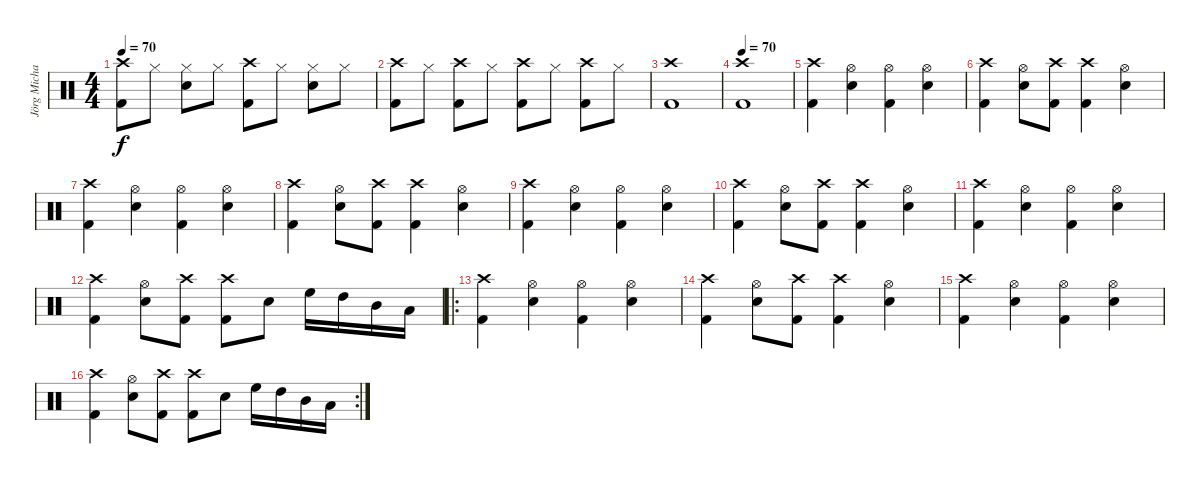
\track ("Jörg Michael (Drums)" "Jörg Micha") {instrument percussion}
\staff {score}
\articulation defaults
\ts (4 4)
\tempo 70
\clef neutral
\ks c
("Crash high (hit)" "Kick (hit) 2").8{dy f} "Hi-Hat (closed)".8 ("Hi-Hat (closed)" "Snare (hit) 2").8 "Hi-Hat (closed)".8 ("Crash high (hit)" "Kick (hit) 2").8 "Hi-Hat (closed)".8 ("Hi-Hat (closed)" "Snare (hit) 2").8 "Hi-Hat (closed)".8 |
("Crash high (hit)" "Kick (hit) 2").8 "Hi-Hat (closed)".8 ("Crash high (hit)" "Kick (hit) 2").8 "Hi-Hat (closed)".8 ("Crash high (hit)" "Kick (hit) 2").8 "Hi-Hat (closed)".8 ("Crash high (hit)" "Kick (hit) 2").8 "Hi-Hat (closed)".8 |
("Crash high (hit)" "Kick (hit) 2").1 |
\tempo 70
("Crash high (hit)" "Kick (hit) 2").1 |
("Crash high (hit)" "Kick (hit) 2").4 ("Hi-Hat (open)" "Snare (hit) 2").4 ("Hi-Hat (open)" "Kick (hit) 2").4 ("Hi-Hat (open)" "Snare (hit) 2").4 |
("Crash high (hit)" "Kick (hit) 2").4 ("Hi-Hat (open)" "Snare (hit) 2").8 ("Crash high (hit)" "Kick (hit) 2").8 ("Crash high (hit)" "Kick (hit) 2").4 ("Hi-Hat (open)" "Snare (hit) 2").4 |
("Crash high (hit)" "Kick (hit) 2").4 ("Hi-Hat (open)" "Snare (hit) 2").4 ("Hi-Hat (open)" "Kick (hit) 2").4 ("Hi-Hat (open)" "Snare (hit) 2").4 |
("Crash high (hit)" "Kick (hit) 2").4 ("Hi-Hat (open)" "Snare (hit) 2").8 ("Crash high (hit)" "Kick (hit) 2").8 ("Crash high (hit)" "Kick (hit) 2").4 ("Hi-Hat (open)" "Snare (hit) 2").4 |
("Crash high (hit)" "Kick (hit) 2").4 ("Hi-Hat (open)" "Snare (hit) 2").4 ("Hi-Hat (open)" "Kick (hit) 2").4 ("Hi-Hat (open)" "Snare (hit) 2").4 |
("Crash high (hit)" "Kick (hit) 2").4 ("Hi-Hat (open)" "Snare (hit) 2").8 ("Crash high (hit)" "Kick (hit) 2").8 ("Crash high (hit)" "Kick (hit) 2").4 ("Hi-Hat (open)" "Snare (hit) 2").4 |
("Crash high (hit)" "Kick (hit) 2").4 ("Hi-Hat (open)" "Snare (hit) 2").4 ("Hi-Hat (open)" "Kick (hit) 2").4 ("Hi-Hat (open)" "Snare (hit) 2").4 |
("Crash high (hit)" "Kick (hit) 2").4 ("Hi-Hat (open)" "Snare (hit) 2").8 ("Crash high (hit)" "Kick (hit) 2").8 ("Crash high (hit)" "Kick (hit) 2").8 "Snare (hit) 2".8 "High Floor Tom (hit)".16 "High Tom (hit)".16 "Mid Tom (hit)".16 "Low Tom (hit)".16 |
\ro
("Crash high (hit)" "Kick (hit) 2").4 ("Hi-Hat (open)" "Snare (hit) 2").4 ("Hi-Hat (open)" "Kick (hit) 2").4 ("Hi-Hat (open)" "Snare (hit) 2").4 |
("Crash high (hit)" "Kick (hit) 2").4 ("Hi-Hat (open)" "Snare (hit) 2").8 ("Crash high (hit)" "Kick (hit) 2").8 ("Crash high (hit)" "Kick (hit) 2").4 ("Hi-Hat (open)" "Snare (hit) 2").4 |
("Crash high (hit)" "Kick (hit) 2").4 ("Hi-Hat (open)" "Snare (hit) 2").4 ("Hi-Hat (open)" "Kick (hit) 2").4 ("Hi-Hat (open)" "Snare (hit) 2").4 |
\rc 2
("Crash high (hit)" "Kick (hit) 2").4 ("Hi-Hat (open)" "Snare (hit) 2").8 ("Crash high (hit)" "Kick (hit) 2").8 ("Crash high (hit)" "Kick (hit) 2").8 "Snare (hit) 2".8 "High Floor Tom (hit)".16 "High Tom (hit)".16 "Mid Tom (hit)".16 "Low Tom (hit)".16
